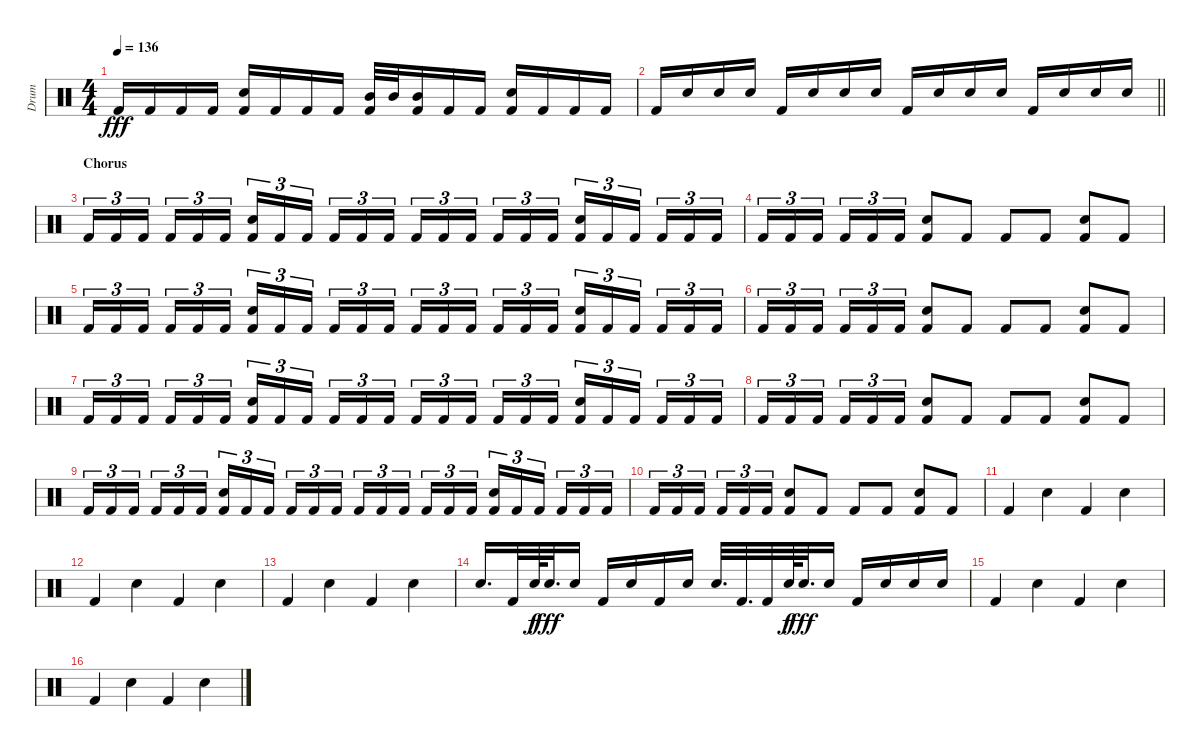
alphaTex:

\track ("Drum" "Drum") {instrument percussion}
\staff {score}
\articulation defaults
\ts (4 4)
\tempo 136
\clef neutral
\ks c "Kick (hit) 2".16{dy fff} "Kick (hit) 2".16 "Kick (hit) 2".16 "Kick (hit) 2".16
("Electric Snare (hit)" "Kick (hit) 2").16 "Kick (hit) 2".16 "Kick (hit) 2".16 "Kick (hit) 2".16 ("Mid Tom (hit)" "Kick (hit) 2").32 "Mid Tom (hit)".32 ("Mid Tom (hit)" "Kick (hit) 2").16 "Kick (hit) 2".16 "Kick (hit) 2".16 ("Electric Snare (hit)" "Kick (hit) 2").16 "Kick (hit) 2".16 "Kick (hit) 2".16 "Kick (hit) 2".16 |
\barLineRight lightlight "Kick (hit) 2".16 "Electric Snare (hit)".16 "Electric Snare (hit)".16 "Electric Snare (hit)".16 "Kick (hit) 2".16 "Electric Snare (hit)".16 "Electric Snare (hit)".16 "Electric Snare (hit)".16 "Kick (hit) 2".16 "Electric Snare (hit)".16 "Electric Snare (hit)".16 "Electric Snare (hit)".16 "Kick (hit) 2".16 "Electric Snare (hit)".16 "Electric Snare (hit)".16 "Electric Snare (hit)".16
|
\section ("" "Chorus")
"Kick (hit) 2".16{tu (3 2)} "Kick (hit) 2".16{tu (3 2)} "Kick (hit) 2".16{tu (3 2) beam splitsecondary} "Kick (hit) 2".16{tu (3 2)} "Kick (hit) 2".16{tu (3 2)} "Kick (hit) 2".16{tu (3 2)} ("Electric Snare (hit)" "Kick (hit) 2").16{tu (3 2)} "Kick (hit) 2".16{tu (3 2)} "Kick (hit) 2".16{tu (3 2) beam splitsecondary} "Kick (hit) 2".16{tu (3 2)} "Kick (hit) 2".16{tu (3 2)} "Kick (hit) 2".16{tu (3 2)} "Kick (hit) 2".16{tu (3 2)} "Kick (hit) 2".16{tu (3 2)} "Kick (hit) 2".16{tu (3 2) beam splitsecondary} "Kick (hit) 2".16{tu (3 2)} "Kick (hit) 2".16{tu (3 2)} "Kick (hit) 2".16{tu (3 2)} ("Electric Snare (hit)" "Kick (hit) 2").16{tu (3 2)} "Kick (hit) 2".16{tu (3 2)} "Kick (hit) 2".16{tu (3 2) beam splitsecondary} "Kick (hit) 2".16{tu (3 2)} "Kick (hit) 2".16{tu (3 2)} "Kick (hit) 2".16{tu (3 2)} |
"Kick (hit) 2".16{tu (3 2)} "Kick (hit) 2".16{tu (3 2)} "Kick (hit) 2".16{tu (3 2) beam splitsecondary} "Kick (hit) 2".16{tu (3 2)} "Kick (hit) 2".16{tu (3 2)} "Kick (hit) 2".16{tu (3 2)} ("Electric Snare (hit)" "Kick (hit) 2").8 "Kick (hit) 2".8 "Kick (hit) 2".8 "Kick (hit) 2".8 ("Electric Snare (hit)" "Kick (hit) 2").8 "Kick (hit) 2".8 |
"Kick (hit) 2".16{tu (3 2)} "Kick (hit) 2".16{tu (3 2)} "Kick (hit) 2".16{tu (3 2) beam splitsecondary} "Kick (hit) 2".16{tu (3 2)} "Kick (hit) 2".16{tu (3 2)} "Kick (hit) 2".16{tu (3 2)} ("Electric Snare (hit)" "Kick (hit) 2").16{tu (3 2)} "Kick (hit) 2".16{tu (3 2)} "Kick (hit) 2".16{tu (3 2) beam splitsecondary} "Kick (hit) 2".16{tu (3 2)} "Kick (hit) 2".16{tu (3 2)} "Kick (hit) 2".16{tu (3 2)} "Kick (hit) 2".16{tu (3 2)} "Kick (hit) 2".16{tu (3 2)} "Kick (hit) 2".16{tu (3 2) beam splitsecondary} "Kick (hit) 2".16{tu (3 2)} "Kick (hit) 2".16{tu (3 2)} "Kick (hit) 2".16{tu (3 2)} ("Electric Snare (hit)" "Kick (hit) 2").16{tu (3 2)} "Kick (hit) 2".16{tu (3 2)} "Kick (hit) 2".16{tu (3 2) beam splitsecondary} "Kick (hit) 2".16{tu (3 2)} "Kick (hit) 2".16{tu (3 2)} "Kick (hit) 2".16{tu (3 2)} |
"Kick (hit) 2".16{tu (3 2)} "Kick (hit) 2".16{tu (3 2)} "Kick (hit) 2".16{tu (3 2) beam splitsecondary} "Kick (hit) 2".16{tu (3 2)} "Kick (hit) 2".16{tu (3 2)} "Kick (hit) 2".16{tu (3 2)} ("Electric Snare (hit)" "Kick (hit) 2").8 "Kick (hit) 2".8 "Kick (hit) 2".8 "Kick (hit) 2".8 ("Electric Snare (hit)" "Kick (hit) 2").8 "Kick (hit) 2".8 |
"Kick (hit) 2".16{tu (3 2)} "Kick (hit) 2".16{tu (3 2)} "Kick (hit) 2".16{tu (3 2) beam splitsecondary} "Kick (hit) 2".16{tu (3 2)} "Kick (hit) 2".16{tu (3 2)} "Kick (hit) 2".16{tu (3 2)} ("Electric Snare (hit)" "Kick (hit) 2").16{tu (3 2)} "Kick (hit) 2".16{tu (3 2)} "Kick (hit) 2".16{tu (3 2) beam splitsecondary} "Kick (hit) 2".16{tu (3 2)} "Kick (hit) 2".16{tu (3 2)} "Kick (hit) 2".16{tu (3 2)} "Kick (hit) 2".16{tu (3 2)} "Kick (hit) 2".16{tu (3 2)} "Kick (hit) 2".16{tu (3 2) beam splitsecondary} "Kick (hit) 2".16{tu (3 2)} "Kick (hit) 2".16{tu (3 2)} "Kick (hit) 2".16{tu (3 2)} ("Electric Snare (hit)" "Kick (hit) 2").16{tu (3 2)} "Kick (hit) 2".16{tu (3 2)} "Kick (hit) 2".16{tu (3 2) beam splitsecondary} "Kick (hit) 2".16{tu (3 2)} "Kick (hit) 2".16{tu (3 2)} "Kick (hit) 2".16{tu (3 2)} |
"Kick (hit) 2".16{tu (3 2)} "Kick (hit) 2".16{tu (3 2)} "Kick (hit) 2".16{tu (3 2) beam splitsecondary} "Kick (hit) 2".16{tu (3 2)} "Kick (hit) 2".16{tu (3 2)} "Kick (hit) 2".16{tu (3 2)} ("Electric Snare (hit)" "Kick (hit) 2").8 "Kick (hit) 2".8 "Kick (hit) 2".8 "Kick (hit) 2".8 ("Electric Snare (hit)" "Kick (hit) 2").8 "Kick (hit) 2".8 |
"Kick (hit) 2".16{tu (3 2)} "Kick (hit) 2".16{tu (3 2)} "Kick (hit) 2".16{tu (3 2) beam splitsecondary} "Kick (hit) 2".16{tu (3 2)} "Kick (hit) 2".16{tu (3 2)} "Kick (hit) 2".16{tu (3 2)} ("Electric Snare (hit)" "Kick (hit) 2").16{tu (3 2)} "Kick (hit) 2".16{tu (3 2)} "Kick (hit) 2".16{tu (3 2) beam splitsecondary} "Kick (hit) 2".16{tu (3 2)} "Kick (hit) 2".16{tu (3 2)} "Kick (hit) 2".16{tu (3 2)} "Kick (hit) 2".16{tu (3 2)} "Kick (hit) 2".16{tu (3 2)} "Kick (hit) 2".16{tu (3 2) beam splitsecondary} "Kick (hit) 2".16{tu (3 2)} "Kick (hit) 2".16{tu (3 2)} "Kick (hit) 2".16{tu (3 2)} ("Electric Snare (hit)" "Kick (hit) 2").16{tu (3 2)} "Kick (hit) 2".16{tu (3 2)} "Kick (hit) 2".16{tu (3 2) beam splitsecondary} "Kick (hit) 2".16{tu (3 2)} "Kick (hit) 2".16{tu (3 2)} "Kick (hit) 2".16{tu (3 2)} |
"Kick (hit) 2".16{tu (3 2)} "Kick (hit) 2".16{tu (3 2)} "Kick (hit) 2".16{tu (3 2) beam splitsecondary} "Kick (hit) 2".16{tu (3 2)} "Kick (hit) 2".16{tu (3 2)} "Kick (hit) 2".16{tu (3 2)} ("Electric Snare (hit)" "Kick (hit) 2").8 "Kick (hit) 2".8 "Kick (hit) 2".8 "Kick (hit) 2".8 ("Electric Snare (hit)" "Kick (hit) 2").8 "Kick (hit) 2".8 |
"Kick (hit) 2".4 "Electric Snare (hit)".4 "Kick (hit) 2".4 "Electric Snare (hit)".4 |
"Kick (hit) 2".4 "Electric Snare (hit)".4 "Kick (hit) 2".4 "Electric Snare (hit)".4 |
"Kick (hit) 2".4 "Electric Snare (hit)".4 "Kick (hit) 2".4 "Electric Snare (hit)".4 |
"Electric Snare (hit)".16{d} "Kick (hit) 2".32 "Electric Snare (hit)".64{dy f} "Electric Snare (hit)".32{d dy fff} "Electric Snare (hit)".16 "Kick (hit) 2".16 "Electric Snare (hit)".16 "Kick (hit) 2".16 "Electric Snare (hit)".16 "Electric Snare (hit)".32{d} "Kick (hit) 2".32{d} "Kick (hit) 2".32 "Electric Snare (hit)".64{dy f} "Electric Snare (hit)".32{d dy fff} "Electric Snare (hit)".16 "Kick (hit) 2".16 "Electric Snare (hit)".16 "Electric Snare (hit)".16 "Electric Snare (hit)".16 |
"Kick (hit) 2".4 "Electric Snare (hit)".4 "Kick (hit) 2".4 "Electric Snare (hit)".4 |
"Kick (hit) 2".4 "Electric Snare (hit)".4 "Kick (hit) 2".4 "Electric Snare (hit)".4
